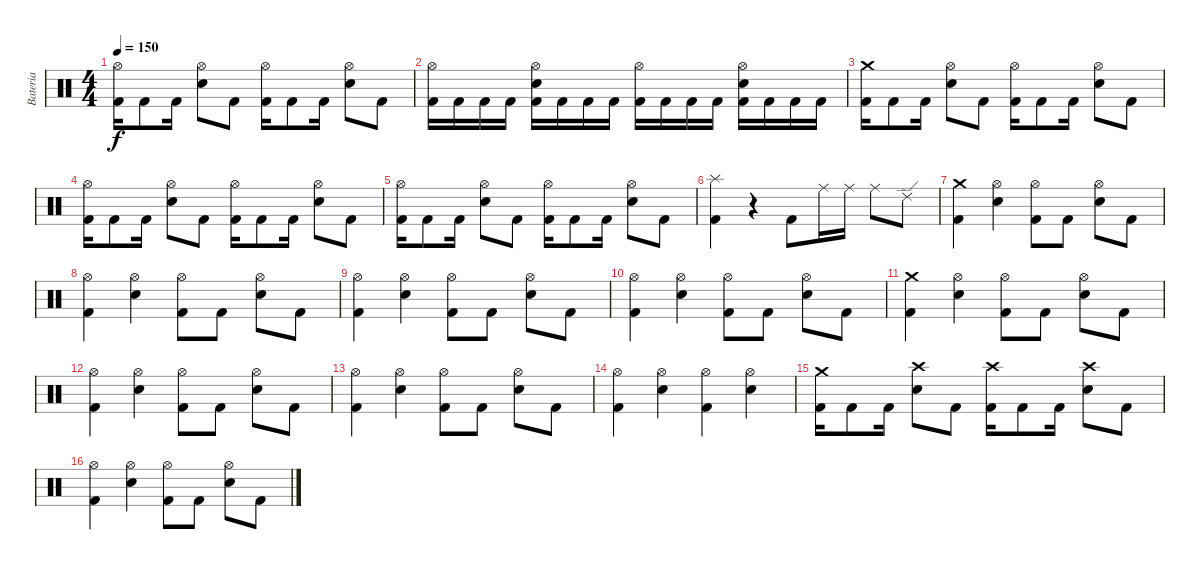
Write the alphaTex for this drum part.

\track ("Bateria" "Bateria") {instrument percussion}
\staff {score}
\articulation defaults
\ts (4 4)
\tempo 150
\clef neutral
\ks c
("Hi-Hat (open)" "Kick (hit) 2").16{dy f} "Kick (hit) 2".8 "Kick (hit) 2".16 ("Hi-Hat (open)" "Snare (hit) 2").8 "Kick (hit) 2".8 ("Hi-Hat (open)" "Kick (hit) 2").16 "Kick (hit) 2".8 "Kick (hit) 2".16 ("Hi-Hat (open)" "Snare (hit) 2").8 "Kick (hit) 2".8 |
("Hi-Hat (open)" "Kick (hit) 2").16 "Kick (hit) 2".16 "Kick (hit) 2".16 "Kick (hit) 2".16 ("Hi-Hat (open)" "Snare (hit) 2" "Kick (hit) 2").16 "Kick (hit) 2".16 "Kick (hit) 2".16 "Kick (hit) 2".16 ("Hi-Hat (open)" "Kick (hit) 2").16 "Kick (hit) 2".16 "Kick (hit) 2".16 "Kick (hit) 2".16 ("Hi-Hat (open)" "Snare (hit) 2" "Kick (hit) 2").16 "Kick (hit) 2".16 "Kick (hit) 2".16 "Kick (hit) 2".16 |
("Crash medium (hit)" "Kick (hit) 2").16 "Kick (hit) 2".8 "Kick (hit) 2".16 ("Hi-Hat (open)" "Snare (hit) 2").8 "Kick (hit) 2".8 ("Hi-Hat (open)" "Kick (hit) 2").16 "Kick (hit) 2".8 "Kick (hit) 2".16 ("Hi-Hat (open)" "Snare (hit) 2").8 "Kick (hit) 2".8 |
("Hi-Hat (open)" "Kick (hit) 2").16 "Kick (hit) 2".8 "Kick (hit) 2".16 ("Hi-Hat (open)" "Snare (hit) 2").8 "Kick (hit) 2".8 ("Hi-Hat (open)" "Kick (hit) 2").16 "Kick (hit) 2".8 "Kick (hit) 2".16 ("Hi-Hat (open)" "Snare (hit) 2").8 "Kick (hit) 2".8 |
("Hi-Hat (open)" "Kick (hit) 2").16 "Kick (hit) 2".8 "Kick (hit) 2".16 ("Hi-Hat (open)" "Snare (hit) 2").8 "Kick (hit) 2".8 ("Hi-Hat (open)" "Kick (hit) 2").16 "Kick (hit) 2".8 "Kick (hit) 2".16 ("Hi-Hat (open)" "Snare (hit) 2").8 "Kick (hit) 2".8 |
("Splash (hit)" "Kick (hit) 2").4 r.4 "Kick (hit) 2".8 "Ride (middle)".16 "Ride (middle)".16 "Ride (middle)".8 "Ride (edge) 2".8 |
("Crash medium (hit)" "Kick (hit) 2").4 ("Hi-Hat (open)" "Snare (hit) 2").4 ("Hi-Hat (open)" "Kick (hit) 2").8 "Kick (hit) 2".8 ("Hi-Hat (open)" "Snare (hit) 2").8 "Kick (hit) 2".8 |
("Hi-Hat (open)" "Kick (hit) 2").4 ("Hi-Hat (open)" "Snare (hit) 2").4 ("Hi-Hat (open)" "Kick (hit) 2").8 "Kick (hit) 2".8 ("Hi-Hat (open)" "Snare (hit) 2").8 "Kick (hit) 2".8 |
("Hi-Hat (open)" "Kick (hit) 2").4 ("Hi-Hat (open)" "Snare (hit) 2").4 ("Hi-Hat (open)" "Kick (hit) 2").8 "Kick (hit) 2".8 ("Hi-Hat (open)" "Snare (hit) 2").8 "Kick (hit) 2".8 |
("Hi-Hat (open)" "Kick (hit) 2").4 ("Hi-Hat (open)" "Snare (hit) 2").4 ("Hi-Hat (open)" "Kick (hit) 2").8 "Kick (hit) 2".8 ("Hi-Hat (open)" "Snare (hit) 2").8 "Kick (hit) 2".8 |
("Crash medium (hit)" "Kick (hit) 2").4 ("Hi-Hat (open)" "Snare (hit) 2").4 ("Hi-Hat (open)" "Kick (hit) 2").8 "Kick (hit) 2".8 ("Hi-Hat (open)" "Snare (hit) 2").8 "Kick (hit) 2".8 |
("Hi-Hat (open)" "Kick (hit) 2").4 ("Hi-Hat (open)" "Snare (hit) 2").4 ("Hi-Hat (open)" "Kick (hit) 2").8 "Kick (hit) 2".8 ("Hi-Hat (open)" "Snare (hit) 2").8 "Kick (hit) 2".8 |
("Hi-Hat (open)" "Kick (hit) 2").4 ("Hi-Hat (open)" "Snare (hit) 2").4 ("Hi-Hat (open)" "Kick (hit) 2").8 "Kick (hit) 2".8 ("Hi-Hat (open)" "Snare (hit) 2").8 "Kick (hit) 2".8 |
("Hi-Hat (open)" "Kick (hit) 2").4 ("Hi-Hat (open)" "Snare (hit) 2").4 ("Hi-Hat (open)" "Kick (hit) 2").4 ("Hi-Hat (open)" "Snare (hit) 2").4 |
("Crash medium (hit)" "Kick (hit) 2").16 "Kick (hit) 2".8 "Kick (hit) 2".16 ("Crash high (hit)" "Snare (hit) 2").8 "Kick (hit) 2".8 ("Crash high (hit)" "Kick (hit) 2").16 "Kick (hit) 2".8 "Kick (hit) 2".16 ("Crash high (hit)" "Snare (hit) 2").8 "Kick (hit) 2".8 |
("Hi-Hat (open)" "Kick (hit) 2").4 ("Hi-Hat (open)" "Snare (hit) 2").4 ("Hi-Hat (open)" "Kick (hit) 2").8 "Kick (hit) 2".8 ("Hi-Hat (open)" "Snare (hit) 2").8 "Kick (hit) 2".8
